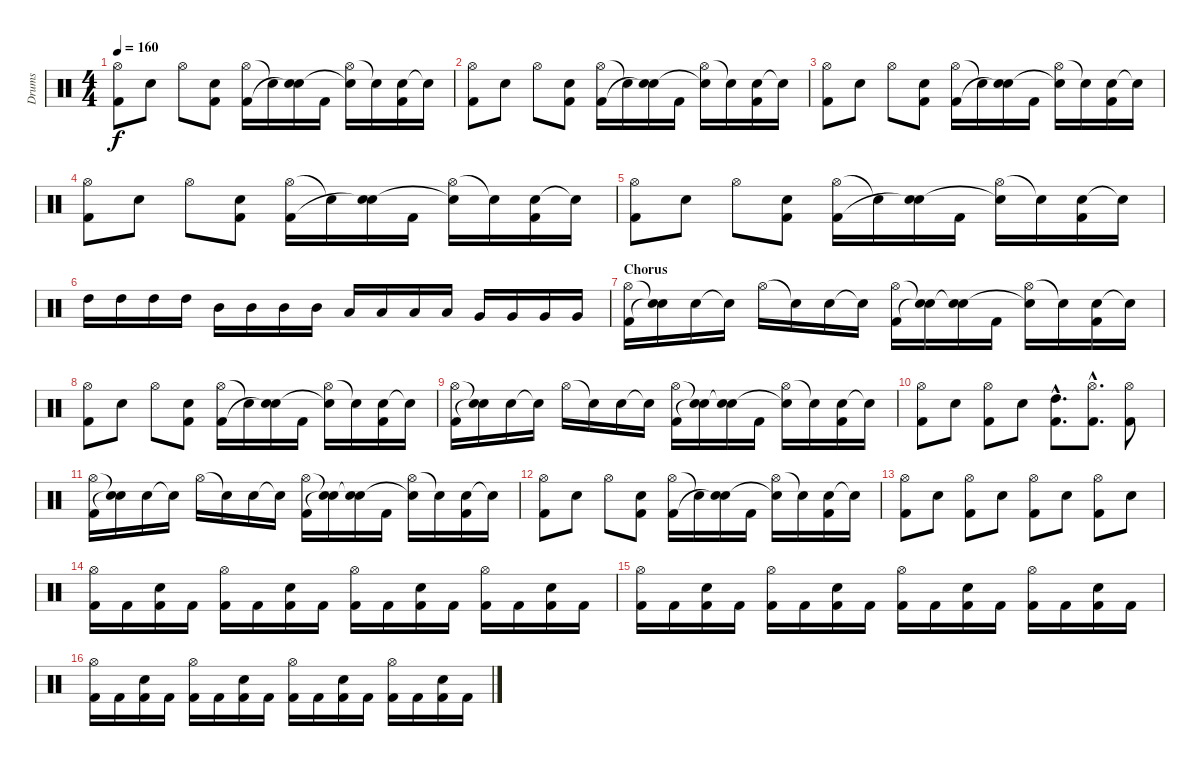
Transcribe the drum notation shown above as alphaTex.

\track ("Drums" "Drums") {instrument percussion}
\staff {score}
\articulation defaults
\ts (4 4)
\tempo 160
\clef neutral
\ks c
("Hi-Hat (open)" "Kick (hit) 2").8{dy f} "Electric Snare (hit)".8 "Hi-Hat (open)".8 ("Electric Snare (hit)" "Kick (hit) 2").8 ("Hi-Hat (open)" "Kick (hit) 2").16 "Snare (hit)"{t}.16 ("Electric Snare (hit)" "Snare (hit)"{t}).16 "Kick (hit) 2".16 ("Hi-Hat (open)" "Snare (hit)"{t}).16 "Snare (hit)"{t}.16 ("Electric Snare (hit)" "Kick (hit) 2").16 "Snare (hit)"{t}.16 |
("Hi-Hat (open)" "Kick (hit) 2").8 "Electric Snare (hit)".8 "Hi-Hat (open)".8 ("Electric Snare (hit)" "Kick (hit) 2").8 ("Hi-Hat (open)" "Kick (hit) 2").16 "Snare (hit)"{t}.16 ("Electric Snare (hit)" "Snare (hit)"{t}).16 "Kick (hit) 2".16 ("Hi-Hat (open)" "Snare (hit)"{t}).16 "Snare (hit)"{t}.16 ("Electric Snare (hit)" "Kick (hit) 2").16 "Snare (hit)"{t}.16 |
("Hi-Hat (open)" "Kick (hit) 2").8 "Electric Snare (hit)".8 "Hi-Hat (open)".8 ("Electric Snare (hit)" "Kick (hit) 2").8 ("Hi-Hat (open)" "Kick (hit) 2").16 "Snare (hit)"{t}.16 ("Electric Snare (hit)" "Snare (hit)"{t}).16 "Kick (hit) 2".16 ("Hi-Hat (open)" "Snare (hit)"{t}).16 "Snare (hit)"{t}.16 ("Electric Snare (hit)" "Kick (hit) 2").16 "Snare (hit)"{t}.16 |
("Hi-Hat (open)" "Kick (hit) 2").8 "Electric Snare (hit)".8 "Hi-Hat (open)".8 ("Electric Snare (hit)" "Kick (hit) 2").8 ("Hi-Hat (open)" "Kick (hit) 2").16 "Snare (hit)"{t}.16 ("Electric Snare (hit)" "Snare (hit)"{t}).16 "Kick (hit) 2".16 ("Hi-Hat (open)" "Snare (hit)"{t}).16 "Snare (hit)"{t}.16 ("Electric Snare (hit)" "Kick (hit) 2").16 "Snare (hit)"{t}.16 |
("Hi-Hat (open)" "Kick (hit) 2").8 "Electric Snare (hit)".8 "Hi-Hat (open)".8 ("Electric Snare (hit)" "Kick (hit) 2").8 ("Hi-Hat (open)" "Kick (hit) 2").16 "Snare (hit)"{t}.16 ("Electric Snare (hit)" "Snare (hit)"{t}).16 "Kick (hit) 2".16 ("Hi-Hat (open)" "Snare (hit)"{t}).16 "Snare (hit)"{t}.16 ("Electric Snare (hit)" "Kick (hit) 2").16 "Snare (hit)"{t}.16 |
"High Tom (hit)".16 "High Tom (hit)".16 "High Tom (hit)".16 "High Tom (hit)".16 "Mid Tom (hit)".16 "Mid Tom (hit)".16 "Mid Tom (hit)".16 "Mid Tom (hit)".16 "Low Tom (hit)".16 "Low Tom (hit)".16 "Low Tom (hit)".16 "Low Tom (hit)".16 "Very Low Tom (hit)".16 "Very Low Tom (hit)".16 "Very Low Tom (hit)".16 "Very Low Tom (hit)".16 |
\section ("" "Chorus")
("Hi-Hat (open)" "Kick (hit) 2").16 ("Snare (hit)"{t} "Snare (hit)"{t}).16 "Electric Snare (hit)".16 "Snare (hit)"{t}.16 "Hi-Hat (open)".16 "Snare (hit)"{t}.16 "Electric Snare (hit)".16 "Snare (hit)"{t}.16 ("Hi-Hat (open)" "Kick (hit) 2").16 ("Snare (hit)"{t} "Snare (hit)"{t}).16 ("Electric Snare (hit)" "Snare (hit)"{t}).16 "Kick (hit) 2".16 ("Hi-Hat (open)" "Snare (hit)"{t}).16 "Snare (hit)"{t}.16 ("Electric Snare (hit)" "Kick (hit) 2").16 "Snare (hit)"{t}.16 |
("Hi-Hat (open)" "Kick (hit) 2").8 "Electric Snare (hit)".8 "Hi-Hat (open)".8 ("Electric Snare (hit)" "Kick (hit) 2").8 ("Hi-Hat (open)" "Kick (hit) 2").16 "Snare (hit)"{t}.16 ("Electric Snare (hit)" "Snare (hit)"{t}).16 "Kick (hit) 2".16 ("Hi-Hat (open)" "Snare (hit)"{t}).16 "Snare (hit)"{t}.16 ("Electric Snare (hit)" "Kick (hit) 2").16 "Snare (hit)"{t}.16 |
("Hi-Hat (open)" "Kick (hit) 2").16 ("Snare (hit)"{t} "Snare (hit)"{t}).16 "Electric Snare (hit)".16 "Snare (hit)"{t}.16 "Hi-Hat (open)".16 "Snare (hit)"{t}.16 "Electric Snare (hit)".16 "Snare (hit)"{t}.16 ("Hi-Hat (open)" "Kick (hit) 2").16 ("Snare (hit)"{t} "Snare (hit)"{t}).16 ("Electric Snare (hit)" "Snare (hit)"{t}).16 "Kick (hit) 2".16 ("Hi-Hat (open)" "Snare (hit)"{t}).16 "Snare (hit)"{t}.16 ("Electric Snare (hit)" "Kick (hit) 2").16 "Snare (hit)"{t}.16 |
("Hi-Hat (open)" "Kick (hit) 2").8 "Electric Snare (hit)".8 ("Hi-Hat (open)" "Kick (hit) 2").8 "Electric Snare (hit)".8 ("High Tom (hit)"{hac} "Kick (hit) 2"{hac}).8{d} ("Hi-Hat (open)"{hac} "Kick (hit) 2"{hac}).8{d} ("Hi-Hat (open)" "Kick (hit) 2").8 |
("Hi-Hat (open)" "Kick (hit) 2").16 ("Snare (hit)"{t} "Snare (hit)"{t}).16 "Electric Snare (hit)".16 "Snare (hit)"{t}.16 "Hi-Hat (open)".16 "Snare (hit)"{t}.16 "Electric Snare (hit)".16 "Snare (hit)"{t}.16 ("Hi-Hat (open)" "Kick (hit) 2").16 ("Snare (hit)"{t} "Snare (hit)"{t}).16 ("Electric Snare (hit)" "Snare (hit)"{t}).16 "Kick (hit) 2".16 ("Hi-Hat (open)" "Snare (hit)"{t}).16 "Snare (hit)"{t}.16 ("Electric Snare (hit)" "Kick (hit) 2").16 "Snare (hit)"{t}.16 |
("Hi-Hat (open)" "Kick (hit) 2").8 "Electric Snare (hit)".8 "Hi-Hat (open)".8 ("Electric Snare (hit)" "Kick (hit) 2").8 ("Hi-Hat (open)" "Kick (hit) 2").16 "Snare (hit)"{t}.16 ("Electric Snare (hit)" "Snare (hit)"{t}).16 "Kick (hit) 2".16 ("Hi-Hat (open)" "Snare (hit)"{t}).16 "Snare (hit)"{t}.16 ("Electric Snare (hit)" "Kick (hit) 2").16 "Snare (hit)"{t}.16 |
("Hi-Hat (open)" "Kick (hit) 2").8 "Electric Snare (hit)".8 ("Hi-Hat (open)" "Kick (hit) 2").8 "Electric Snare (hit)".8 ("Hi-Hat (open)" "Kick (hit) 2").8 "Electric Snare (hit)".8 ("Hi-Hat (open)" "Kick (hit) 2").8 "Electric Snare (hit)".8 |
("Hi-Hat (open)" "Kick (hit) 2").16 "Kick (hit) 2".16 ("Electric Snare (hit)" "Kick (hit) 2").16 "Kick (hit) 2".16 ("Hi-Hat (open)" "Kick (hit) 2").16 "Kick (hit) 2".16 ("Electric Snare (hit)" "Kick (hit) 2").16 "Kick (hit) 2".16 ("Hi-Hat (open)" "Kick (hit) 2").16 "Kick (hit) 2".16 ("Electric Snare (hit)" "Kick (hit) 2").16 "Kick (hit) 2".16 ("Hi-Hat (open)" "Kick (hit) 2").16 "Kick (hit) 2".16 ("Electric Snare (hit)" "Kick (hit) 2").16 "Kick (hit) 2".16 |
("Hi-Hat (open)" "Kick (hit) 2").16 "Kick (hit) 2".16 ("Electric Snare (hit)" "Kick (hit) 2").16 "Kick (hit) 2".16 ("Hi-Hat (open)" "Kick (hit) 2").16 "Kick (hit) 2".16 ("Electric Snare (hit)" "Kick (hit) 2").16 "Kick (hit) 2".16 ("Hi-Hat (open)" "Kick (hit) 2").16 "Kick (hit) 2".16 ("Electric Snare (hit)" "Kick (hit) 2").16 "Kick (hit) 2".16 ("Hi-Hat (open)" "Kick (hit) 2").16 "Kick (hit) 2".16 ("Electric Snare (hit)" "Kick (hit) 2").16 "Kick (hit) 2".16 |
("Hi-Hat (open)" "Kick (hit) 2").16 "Kick (hit) 2".16 ("Electric Snare (hit)" "Kick (hit) 2").16 "Kick (hit) 2".16 ("Hi-Hat (open)" "Kick (hit) 2").16 "Kick (hit) 2".16 ("Electric Snare (hit)" "Kick (hit) 2").16 "Kick (hit) 2".16 ("Hi-Hat (open)" "Kick (hit) 2").16 "Kick (hit) 2".16 ("Electric Snare (hit)" "Kick (hit) 2").16 "Kick (hit) 2".16 ("Hi-Hat (open)" "Kick (hit) 2").16 "Kick (hit) 2".16 ("Electric Snare (hit)" "Kick (hit) 2").16 "Kick (hit) 2".16
